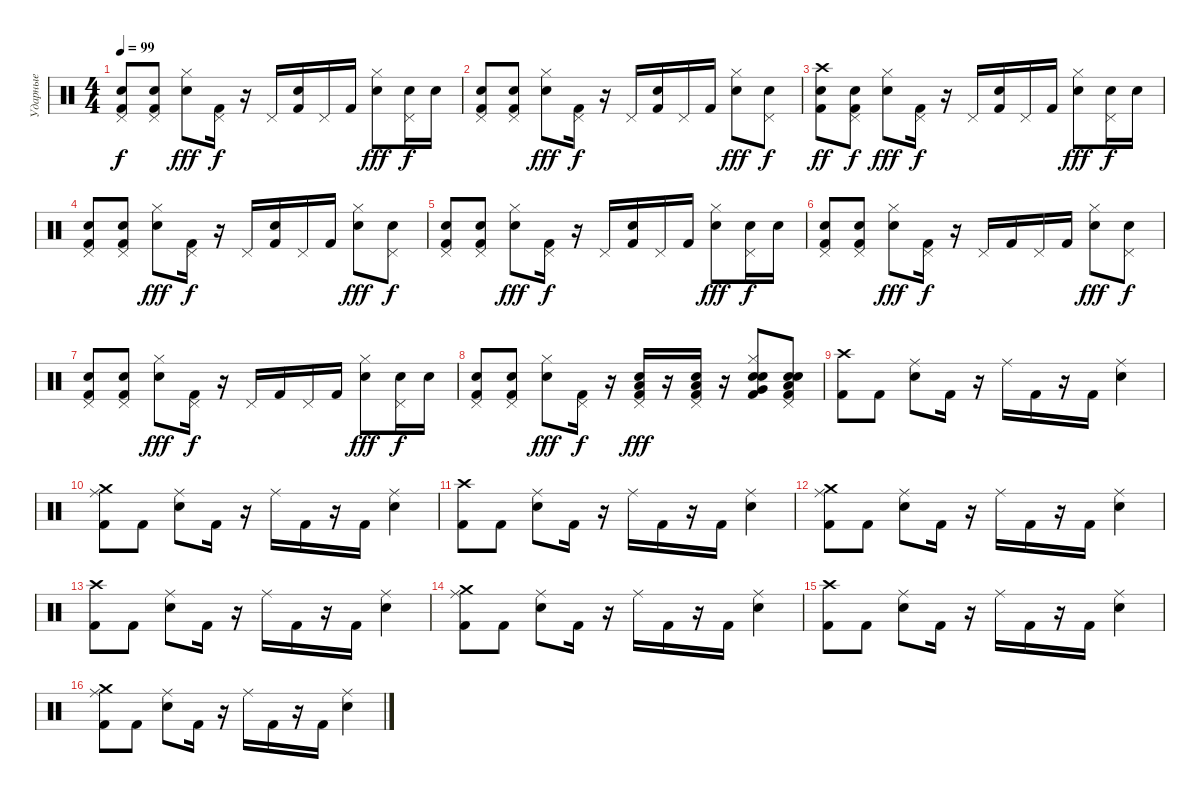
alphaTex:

\track ("Ударные" "Ударные") {instrument percussion}
\staff {score}
\articulation defaults
\ts (4 4)
\tempo 99
\clef neutral
\ks c
("Pedal Hi-Hat (hit)" "Snare (hit) 2" "Kick (hit) 2").8{dy f} ("Pedal Hi-Hat (hit)" "Snare (hit) 2" "Kick (hit) 2").8 ("Hi-Hat (closed)" "Snare (hit) 2").8{dy fff} ("Pedal Hi-Hat (hit)" "Kick (hit) 2").16{dy f} r.16 "Pedal Hi-Hat (hit)".16 ("Snare (hit) 2" "Kick (hit) 2").16 "Pedal Hi-Hat (hit)".16 "Kick (hit) 2".16 ("Hi-Hat (closed)" "Snare (hit) 2").8{dy fff} ("Pedal Hi-Hat (hit)" "Snare (hit) 2").16{dy f} "Snare (hit) 2".16 |
("Pedal Hi-Hat (hit)" "Snare (hit) 2" "Kick (hit) 2").8 ("Pedal Hi-Hat (hit)" "Snare (hit) 2" "Kick (hit) 2").8 ("Hi-Hat (closed)" "Snare (hit) 2").8{dy fff} ("Pedal Hi-Hat (hit)" "Kick (hit) 2").16{dy f} r.16 "Pedal Hi-Hat (hit)".16 ("Snare (hit) 2" "Kick (hit) 2").16 "Pedal Hi-Hat (hit)".16 "Kick (hit) 2".16 ("Hi-Hat (closed)" "Snare (hit) 2").8{dy fff} ("Pedal Hi-Hat (hit)" "Snare (hit) 2").8{dy f} |
("Crash high (hit)" "Snare (hit) 2" "Kick (hit) 2").8{dy ff} ("Pedal Hi-Hat (hit)" "Snare (hit) 2" "Kick (hit) 2").8{dy f} ("Hi-Hat (closed)" "Snare (hit) 2").8{dy fff} ("Pedal Hi-Hat (hit)" "Kick (hit) 2").16{dy f} r.16 "Pedal Hi-Hat (hit)".16 ("Snare (hit) 2" "Kick (hit) 2").16 "Pedal Hi-Hat (hit)".16 "Kick (hit) 2".16 ("Hi-Hat (closed)" "Snare (hit) 2").8{dy fff} ("Pedal Hi-Hat (hit)" "Snare (hit) 2").16{dy f} "Snare (hit) 2".16 |
("Pedal Hi-Hat (hit)" "Snare (hit) 2" "Kick (hit) 2").8 ("Pedal Hi-Hat (hit)" "Snare (hit) 2" "Kick (hit) 2").8 ("Hi-Hat (closed)" "Snare (hit) 2").8{dy fff} ("Pedal Hi-Hat (hit)" "Kick (hit) 2").16{dy f} r.16 "Pedal Hi-Hat (hit)".16 ("Snare (hit) 2" "Kick (hit) 2").16 "Pedal Hi-Hat (hit)".16 "Kick (hit) 2".16 ("Hi-Hat (closed)" "Snare (hit) 2").8{dy fff} ("Pedal Hi-Hat (hit)" "Snare (hit) 2").8{dy f} |
("Pedal Hi-Hat (hit)" "Snare (hit) 2" "Kick (hit) 2").8 ("Pedal Hi-Hat (hit)" "Snare (hit) 2" "Kick (hit) 2").8 ("Hi-Hat (closed)" "Snare (hit) 2").8{dy fff} ("Pedal Hi-Hat (hit)" "Kick (hit) 2").16{dy f} r.16 "Pedal Hi-Hat (hit)".16 ("Snare (hit) 2" "Kick (hit) 2").16 "Pedal Hi-Hat (hit)".16 "Kick (hit) 2".16 ("Hi-Hat (closed)" "Snare (hit) 2").8{dy fff} ("Pedal Hi-Hat (hit)" "Snare (hit) 2").16{dy f} "Snare (hit) 2".16 |
("Pedal Hi-Hat (hit)" "Snare (hit) 2" "Kick (hit) 2").8 ("Pedal Hi-Hat (hit)" "Snare (hit) 2" "Kick (hit) 2").8 ("Hi-Hat (closed)" "Snare (hit) 2").8{dy fff} ("Pedal Hi-Hat (hit)" "Kick (hit) 2").16{dy f} r.16 "Pedal Hi-Hat (hit)".16 "Kick (hit) 2".16 "Pedal Hi-Hat (hit)".16 "Kick (hit) 2".16 ("Hi-Hat (closed)" "Snare (hit) 2").8{dy fff} ("Pedal Hi-Hat (hit)" "Snare (hit) 2").8{dy f} |
("Pedal Hi-Hat (hit)" "Snare (hit) 2" "Kick (hit) 2").8 ("Pedal Hi-Hat (hit)" "Snare (hit) 2" "Kick (hit) 2").8 ("Hi-Hat (closed)" "Snare (hit) 2").8{dy fff} ("Pedal Hi-Hat (hit)" "Kick (hit) 2").16{dy f} r.16 "Pedal Hi-Hat (hit)".16 "Kick (hit) 2".16 "Pedal Hi-Hat (hit)".16 "Kick (hit) 2".16 ("Hi-Hat (closed)" "Snare (hit) 2").8{dy fff} ("Pedal Hi-Hat (hit)" "Snare (hit) 2").16{dy f} "Snare (hit) 2".16 |
("Pedal Hi-Hat (hit)" "Snare (hit) 2" "Kick (hit) 2").8 ("Pedal Hi-Hat (hit)" "Snare (hit) 2" "Kick (hit) 2").8 ("Hi-Hat (closed)" "Snare (hit) 2").8{dy fff} ("Pedal Hi-Hat (hit)" "Kick (hit) 2").16{dy f} r.16 ("Pedal Hi-Hat (hit)" "Kick (hit) 2" "Low Floor Tom (hit)" "Snare (hit) 2").16{dy fff} r.16 ("Pedal Hi-Hat (hit)" "Kick (hit) 2" "Low Floor Tom (hit)" "Snare (hit) 2").16 r.16 ("Hi-Hat (closed)" "Kick (hit) 2" "Snare (hit) 2" "Very Low Tom (hit)" "Snare (hit) 2").8 ("Pedal Hi-Hat (hit)" "Kick (hit) 2" "Snare (hit) 2" "Low Floor Tom (hit)" "Snare (hit) 2").8 |
("Crash high (hit)" "Kick (hit) 2").8 "Kick (hit) 2".8 ("Ride (middle)" "Snare (hit) 2").8 "Kick (hit) 2".16 r.16 "Ride (middle)".16 "Kick (hit) 2".16 r.16 "Kick (hit) 2".16 ("Ride (middle)" "Snare (hit) 2").4 |
("Ride (middle)" "Crash medium (hit)" "Kick (hit) 2").8 "Kick (hit) 2".8 ("Ride (middle)" "Snare (hit) 2").8 "Kick (hit) 2".16 r.16 "Ride (middle)".16 "Kick (hit) 2".16 r.16 "Kick (hit) 2".16 ("Ride (middle)" "Snare (hit) 2").4 |
("Crash high (hit)" "Kick (hit) 2").8 "Kick (hit) 2".8 ("Ride (middle)" "Snare (hit) 2").8 "Kick (hit) 2".16 r.16 "Ride (middle)".16 "Kick (hit) 2".16 r.16 "Kick (hit) 2".16 ("Ride (middle)" "Snare (hit) 2").4 |
("Ride (middle)" "Crash medium (hit)" "Kick (hit) 2").8 "Kick (hit) 2".8 ("Ride (middle)" "Snare (hit) 2").8 "Kick (hit) 2".16 r.16 "Ride (middle)".16 "Kick (hit) 2".16 r.16 "Kick (hit) 2".16 ("Ride (middle)" "Snare (hit) 2").4 |
("Crash high (hit)" "Kick (hit) 2").8 "Kick (hit) 2".8 ("Ride (middle)" "Snare (hit) 2").8 "Kick (hit) 2".16 r.16 "Ride (middle)".16 "Kick (hit) 2".16 r.16 "Kick (hit) 2".16 ("Ride (middle)" "Snare (hit) 2").4 |
("Ride (middle)" "Crash medium (hit)" "Kick (hit) 2").8 "Kick (hit) 2".8 ("Ride (middle)" "Snare (hit) 2").8 "Kick (hit) 2".16 r.16 "Ride (middle)".16 "Kick (hit) 2".16 r.16 "Kick (hit) 2".16 ("Ride (middle)" "Snare (hit) 2").4 |
("Crash high (hit)" "Kick (hit) 2").8 "Kick (hit) 2".8 ("Ride (middle)" "Snare (hit) 2").8 "Kick (hit) 2".16 r.16 "Ride (middle)".16 "Kick (hit) 2".16 r.16 "Kick (hit) 2".16 ("Ride (middle)" "Snare (hit) 2").4 |
("Ride (middle)" "Crash medium (hit)" "Kick (hit) 2").8 "Kick (hit) 2".8 ("Ride (middle)" "Snare (hit) 2").8 "Kick (hit) 2".16 r.16 "Ride (middle)".16 "Kick (hit) 2".16 r.16 "Kick (hit) 2".16 ("Ride (middle)" "Snare (hit) 2").4
